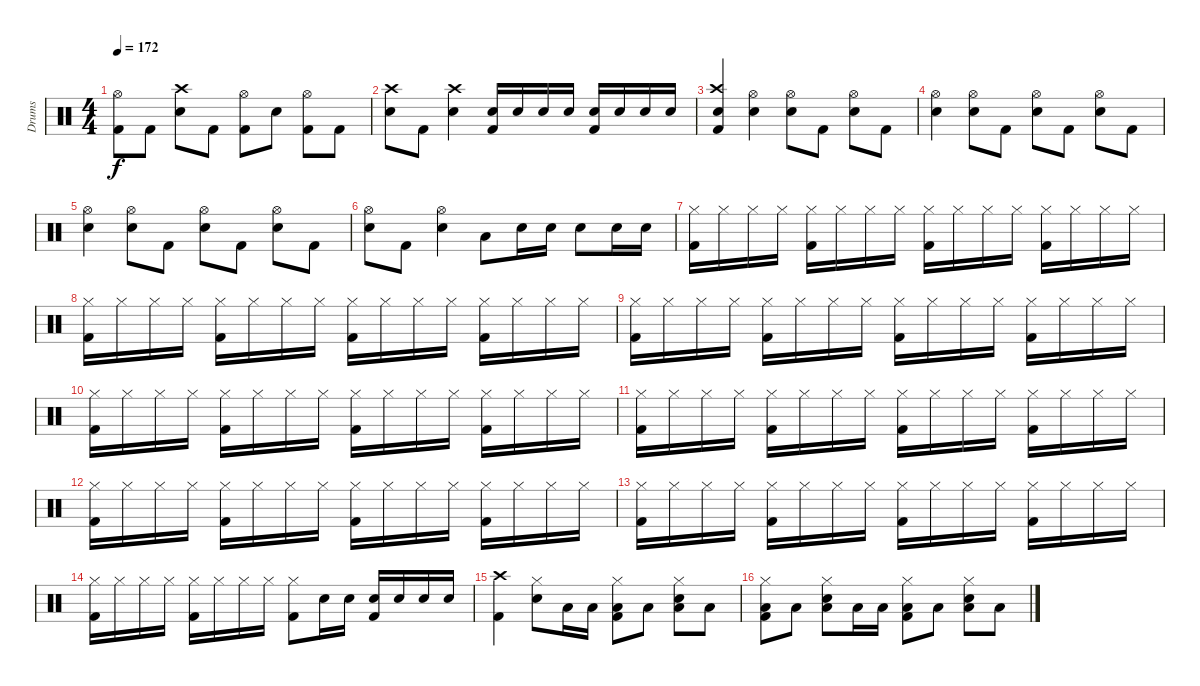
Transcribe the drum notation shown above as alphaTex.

\track ("Drums" "Drums") {instrument percussion}
\staff {score}
\articulation defaults
\ts (4 4)
\tempo 172
\clef neutral
\ks c
("Hi-Hat (open)" "Kick (hit) 2").8{dy f} "Kick (hit) 2".8 ("Crash high (hit)" "Electric Snare (hit)").8 "Kick (hit) 2".8 ("Hi-Hat (open)" "Kick (hit) 2").8 "Electric Snare (hit)".8 ("Hi-Hat (open)" "Kick (hit) 2").8 "Kick (hit) 2".8 |
("Crash high (hit)" "Electric Snare (hit)").8 "Kick (hit) 2".8 ("Crash high (hit)" "Electric Snare (hit)").4 ("Electric Snare (hit)" "Kick (hit) 2").16 "Electric Snare (hit)".16 "Electric Snare (hit)".16 "Electric Snare (hit)".16 ("Electric Snare (hit)" "Kick (hit) 2").16 "Electric Snare (hit)".16 "Electric Snare (hit)".16 "Electric Snare (hit)".16 |
("Crash high (hit)" "Electric Snare (hit)" "Kick (hit) 2").4 ("Hi-Hat (open)" "Electric Snare (hit)").4 ("Hi-Hat (open)" "Electric Snare (hit)").8 "Kick (hit) 2".8 ("Hi-Hat (open)" "Electric Snare (hit)").8 "Kick (hit) 2".8 |
("Hi-Hat (open)" "Electric Snare (hit)").4 ("Hi-Hat (open)" "Electric Snare (hit)").8 "Kick (hit) 2".8 ("Hi-Hat (open)" "Electric Snare (hit)").8 "Kick (hit) 2".8 ("Hi-Hat (open)" "Electric Snare (hit)").8 "Kick (hit) 2".8 |
("Hi-Hat (open)" "Electric Snare (hit)").4 ("Hi-Hat (open)" "Electric Snare (hit)").8 "Kick (hit) 2".8 ("Hi-Hat (open)" "Electric Snare (hit)").8 "Kick (hit) 2".8 ("Hi-Hat (open)" "Electric Snare (hit)").8 "Kick (hit) 2".8 |
("Hi-Hat (open)" "Electric Snare (hit)").8 "Kick (hit) 2".8 ("Hi-Hat (open)" "Electric Snare (hit)").4 "Low Floor Tom (hit)".8 "Electric Snare (hit)".16 "Electric Snare (hit)".16 "Electric Snare (hit)".8 "Electric Snare (hit)".16 "Electric Snare (hit)".16 |
("Hi-Hat (closed)" "Kick (hit) 2").16 "Hi-Hat (closed)".16 "Hi-Hat (closed)".16 "Hi-Hat (closed)".16 ("Hi-Hat (closed)" "Kick (hit) 2").16 "Hi-Hat (closed)".16 "Hi-Hat (closed)".16 "Hi-Hat (closed)".16 ("Hi-Hat (closed)" "Kick (hit) 2").16 "Hi-Hat (closed)".16 "Hi-Hat (closed)".16 "Hi-Hat (closed)".16 ("Hi-Hat (closed)" "Kick (hit) 2").16 "Hi-Hat (closed)".16 "Hi-Hat (closed)".16 "Hi-Hat (closed)".16 |
("Hi-Hat (closed)" "Kick (hit) 2").16 "Hi-Hat (closed)".16 "Hi-Hat (closed)".16 "Hi-Hat (closed)".16 ("Hi-Hat (closed)" "Kick (hit) 2").16 "Hi-Hat (closed)".16 "Hi-Hat (closed)".16 "Hi-Hat (closed)".16 ("Hi-Hat (closed)" "Kick (hit) 2").16 "Hi-Hat (closed)".16 "Hi-Hat (closed)".16 "Hi-Hat (closed)".16 ("Hi-Hat (closed)" "Kick (hit) 2").16 "Hi-Hat (closed)".16 "Hi-Hat (closed)".16 "Hi-Hat (closed)".16 |
("Hi-Hat (closed)" "Kick (hit) 2").16 "Hi-Hat (closed)".16 "Hi-Hat (closed)".16 "Hi-Hat (closed)".16 ("Hi-Hat (closed)" "Kick (hit) 2").16 "Hi-Hat (closed)".16 "Hi-Hat (closed)".16 "Hi-Hat (closed)".16 ("Hi-Hat (closed)" "Kick (hit) 2").16 "Hi-Hat (closed)".16 "Hi-Hat (closed)".16 "Hi-Hat (closed)".16 ("Hi-Hat (closed)" "Kick (hit) 2").16 "Hi-Hat (closed)".16 "Hi-Hat (closed)".16 "Hi-Hat (closed)".16 |
("Hi-Hat (closed)" "Kick (hit) 2").16 "Hi-Hat (closed)".16 "Hi-Hat (closed)".16 "Hi-Hat (closed)".16 ("Hi-Hat (closed)" "Kick (hit) 2").16 "Hi-Hat (closed)".16 "Hi-Hat (closed)".16 "Hi-Hat (closed)".16 ("Hi-Hat (closed)" "Kick (hit) 2").16 "Hi-Hat (closed)".16 "Hi-Hat (closed)".16 "Hi-Hat (closed)".16 ("Hi-Hat (closed)" "Kick (hit) 2").16 "Hi-Hat (closed)".16 "Hi-Hat (closed)".16 "Hi-Hat (closed)".16 |
("Hi-Hat (closed)" "Kick (hit) 2").16 "Hi-Hat (closed)".16 "Hi-Hat (closed)".16 "Hi-Hat (closed)".16 ("Hi-Hat (closed)" "Kick (hit) 2").16 "Hi-Hat (closed)".16 "Hi-Hat (closed)".16 "Hi-Hat (closed)".16 ("Hi-Hat (closed)" "Kick (hit) 2").16 "Hi-Hat (closed)".16 "Hi-Hat (closed)".16 "Hi-Hat (closed)".16 ("Hi-Hat (closed)" "Kick (hit) 2").16 "Hi-Hat (closed)".16 "Hi-Hat (closed)".16 "Hi-Hat (closed)".16 |
("Hi-Hat (closed)" "Kick (hit) 2").16 "Hi-Hat (closed)".16 "Hi-Hat (closed)".16 "Hi-Hat (closed)".16 ("Hi-Hat (closed)" "Kick (hit) 2").16 "Hi-Hat (closed)".16 "Hi-Hat (closed)".16 "Hi-Hat (closed)".16 ("Hi-Hat (closed)" "Kick (hit) 2").16 "Hi-Hat (closed)".16 "Hi-Hat (closed)".16 "Hi-Hat (closed)".16 ("Hi-Hat (closed)" "Kick (hit) 2").16 "Hi-Hat (closed)".16 "Hi-Hat (closed)".16 "Hi-Hat (closed)".16 |
("Hi-Hat (closed)" "Kick (hit) 2").16 "Hi-Hat (closed)".16 "Hi-Hat (closed)".16 "Hi-Hat (closed)".16 ("Hi-Hat (closed)" "Kick (hit) 2").16 "Hi-Hat (closed)".16 "Hi-Hat (closed)".16 "Hi-Hat (closed)".16 ("Hi-Hat (closed)" "Kick (hit) 2").16 "Hi-Hat (closed)".16 "Hi-Hat (closed)".16 "Hi-Hat (closed)".16 ("Hi-Hat (closed)" "Kick (hit) 2").16 "Hi-Hat (closed)".16 "Hi-Hat (closed)".16 "Hi-Hat (closed)".16 |
("Hi-Hat (closed)" "Kick (hit) 2").16 "Hi-Hat (closed)".16 "Hi-Hat (closed)".16 "Hi-Hat (closed)".16 ("Hi-Hat (closed)" "Kick (hit) 2").16 "Hi-Hat (closed)".16 "Hi-Hat (closed)".16 "Hi-Hat (closed)".16 ("Hi-Hat (closed)" "Kick (hit) 2").8 "Electric Snare (hit)".16 "Electric Snare (hit)".16 ("Electric Snare (hit)" "Kick (hit) 2").16 "Electric Snare (hit)".16 "Electric Snare (hit)".16 "Electric Snare (hit)".16 |
("Crash high (hit)" "Kick (hit) 2").4 ("Hi-Hat (closed)" "Electric Snare (hit)").8 "Low Floor Tom (hit)".16 "Low Floor Tom (hit)".16 ("Hi-Hat (closed)" "Low Floor Tom (hit)" "Kick (hit) 2").8 "Low Floor Tom (hit)".8 ("Hi-Hat (closed)" "Electric Snare (hit)" "Low Floor Tom (hit)").8 "Low Floor Tom (hit)".8 |
("Hi-Hat (closed)" "Low Floor Tom (hit)" "Kick (hit) 2").8 "Low Floor Tom (hit)".8 ("Hi-Hat (closed)" "Electric Snare (hit)" "Low Floor Tom (hit)").8 "Low Floor Tom (hit)".16 "Low Floor Tom (hit)".16 ("Hi-Hat (closed)" "Low Floor Tom (hit)" "Kick (hit) 2").8 "Low Floor Tom (hit)".8 ("Hi-Hat (closed)" "Electric Snare (hit)" "Low Floor Tom (hit)").8 "Low Floor Tom (hit)".8
